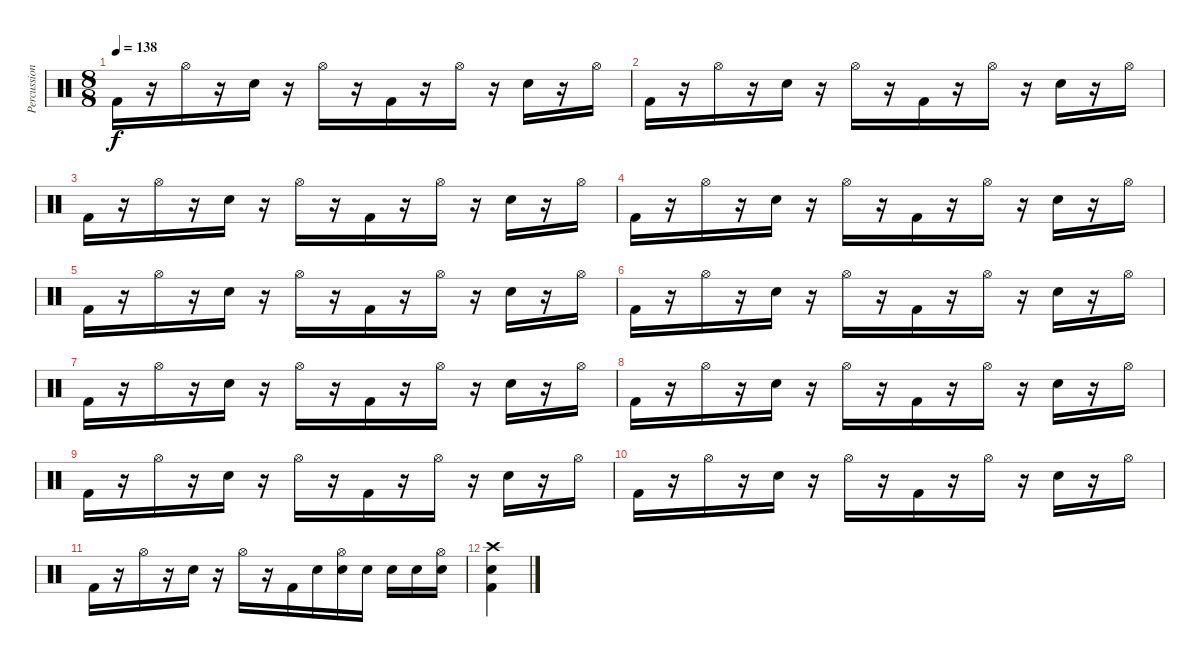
\track ("Percussion" "Percussion") {instrument percussion}
\staff {score}
\articulation defaults
\ts (8 8)
\tempo 138
\clef neutral
\ks c "Kick (hit) 2".16{dy f}
r.16 "Hi-Hat (open)".16 r.16 "Electric Snare (hit)".16 r.16 "Hi-Hat (open)".16 r.16 "Kick (hit) 2".16 r.16 "Hi-Hat (open)".16 r.16 "Electric Snare (hit)".16 r.16 "Hi-Hat (open)".16 |
"Kick (hit) 2".16 r.16 "Hi-Hat (open)".16 r.16 "Electric Snare (hit)".16 r.16 "Hi-Hat (open)".16 r.16 "Kick (hit) 2".16 r.16 "Hi-Hat (open)".16 r.16 "Electric Snare (hit)".16 r.16 "Hi-Hat (open)".16 |
"Kick (hit) 2".16 r.16 "Hi-Hat (open)".16 r.16 "Electric Snare (hit)".16 r.16 "Hi-Hat (open)".16 r.16 "Kick (hit) 2".16 r.16 "Hi-Hat (open)".16 r.16 "Electric Snare (hit)".16 r.16 "Hi-Hat (open)".16 |
"Kick (hit) 2".16 r.16 "Hi-Hat (open)".16 r.16 "Electric Snare (hit)".16 r.16 "Hi-Hat (open)".16 r.16 "Kick (hit) 2".16 r.16 "Hi-Hat (open)".16 r.16 "Electric Snare (hit)".16 r.16 "Hi-Hat (open)".16 |
"Kick (hit) 2".16 r.16 "Hi-Hat (open)".16 r.16 "Electric Snare (hit)".16 r.16 "Hi-Hat (open)".16 r.16 "Kick (hit) 2".16 r.16 "Hi-Hat (open)".16 r.16 "Electric Snare (hit)".16 r.16 "Hi-Hat (open)".16 |
"Kick (hit) 2".16 r.16 "Hi-Hat (open)".16 r.16 "Electric Snare (hit)".16 r.16 "Hi-Hat (open)".16 r.16 "Kick (hit) 2".16 r.16 "Hi-Hat (open)".16 r.16 "Electric Snare (hit)".16 r.16 "Hi-Hat (open)".16 |
"Kick (hit) 2".16 r.16 "Hi-Hat (open)".16 r.16 "Electric Snare (hit)".16 r.16 "Hi-Hat (open)".16 r.16 "Kick (hit) 2".16 r.16 "Hi-Hat (open)".16 r.16 "Electric Snare (hit)".16 r.16 "Hi-Hat (open)".16 |
"Kick (hit) 2".16 r.16 "Hi-Hat (open)".16 r.16 "Electric Snare (hit)".16 r.16 "Hi-Hat (open)".16 r.16 "Kick (hit) 2".16 r.16 "Hi-Hat (open)".16 r.16 "Electric Snare (hit)".16 r.16 "Hi-Hat (open)".16 |
"Kick (hit) 2".16 r.16 "Hi-Hat (open)".16 r.16 "Electric Snare (hit)".16 r.16 "Hi-Hat (open)".16 r.16 "Kick (hit) 2".16 r.16 "Hi-Hat (open)".16 r.16 "Electric Snare (hit)".16 r.16 "Hi-Hat (open)".16 |
"Kick (hit) 2".16 r.16 "Hi-Hat (open)".16 r.16 "Electric Snare (hit)".16 r.16 "Hi-Hat (open)".16 r.16 "Kick (hit) 2".16 r.16 "Hi-Hat (open)".16 r.16 "Electric Snare (hit)".16 r.16 "Hi-Hat (open)".16 |
"Kick (hit) 2".16 r.16 "Hi-Hat (open)".16 r.16 "Electric Snare (hit)".16 r.16 "Hi-Hat (open)".16 r.16 "Kick (hit) 2".16 "Electric Snare (hit)".16 ("Hi-Hat (open)" "Electric Snare (hit)").16 "Electric Snare (hit)".16 "Electric Snare (hit)".16 "Electric Snare (hit)".16 ("Hi-Hat (open)" "Electric Snare (hit)").16 |
("Crash high (hit)" "Electric Snare (hit)" "Kick (hit) 2").4
